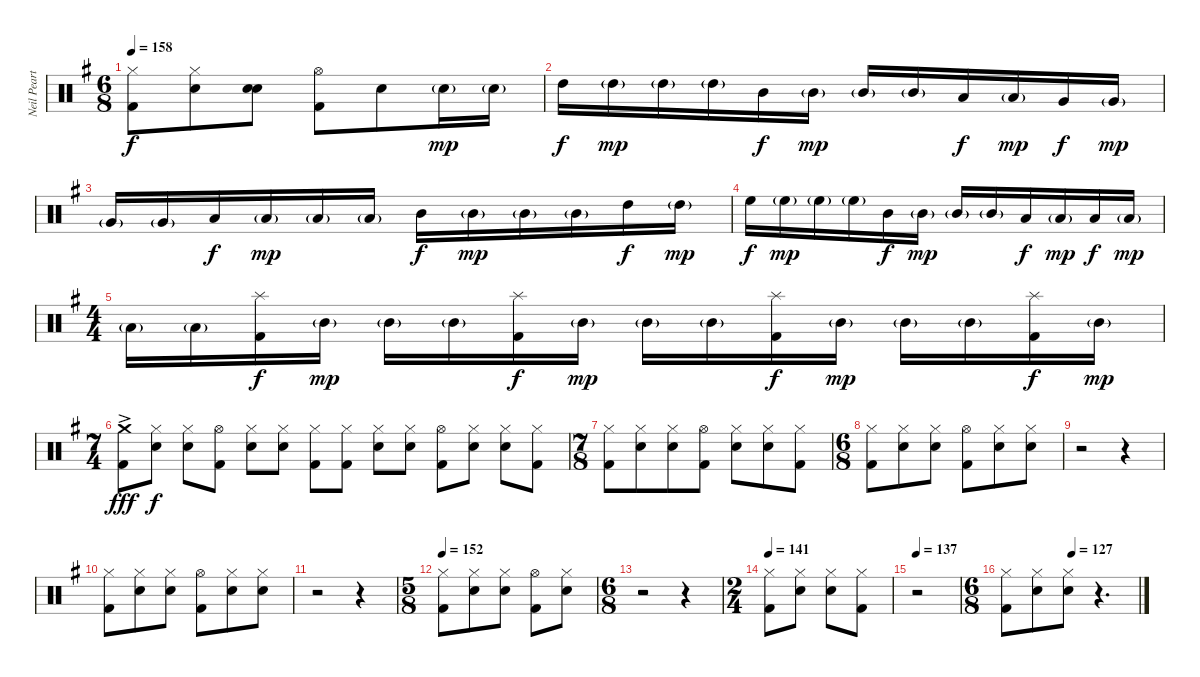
\track ("Neil Peart (drums)" "Neil Peart") {instrument percussion}
\staff {score}
\articulation defaults
\ts (6 8)
\tempo 158
\clef neutral
\ks eminor
("Hi-Hat (closed)" "Kick (hit) 2").8{dy f} ("Hi-Hat (closed)" "Electric Snare (hit)").8 ("Snare (hit)" "Electric Snare (hit)").8 ("Hi-Hat (open)" "Kick (hit) 2").8 "Electric Snare (hit)".8 "Electric Snare (hit)"{g}.16{dy mp} "Electric Snare (hit)"{g}.16 |
"High Tom (hit)".16{dy f} "High Tom (hit)"{g}.16{dy mp} "High Tom (hit)"{g}.16 "High Tom (hit)"{g}.16 "Mid Tom (hit)".16{dy f} "Mid Tom (hit)"{g}.16{dy mp} "Mid Tom (hit)"{g}.16 "Mid Tom (hit)"{g}.16 "Low Tom (hit)".16{dy f} "Low Tom (hit)"{g}.16{dy mp} "Very Low Tom (hit)".16{dy f} "Very Low Tom (hit)"{g}.16{dy mp} |
"Very Low Tom (hit)"{g}.16 "Very Low Tom (hit)"{g}.16 "Low Tom (hit)".16{dy f} "Low Tom (hit)"{g}.16{dy mp} "Low Tom (hit)"{g}.16 "Low Tom (hit)"{g}.16 "Mid Tom (hit)".16{dy f} "Mid Tom (hit)"{g}.16{dy mp} "Mid Tom (hit)"{g}.16 "Mid Tom (hit)"{g}.16 "High Tom (hit)".16{dy f} "High Tom (hit)"{g}.16{dy mp} |
"High Floor Tom (hit)".16{dy f} "High Floor Tom (hit)"{g}.16{dy mp} "High Floor Tom (hit)"{g}.16 "High Floor Tom (hit)"{g}.16 "Mid Tom (hit)".16{dy f} "Mid Tom (hit)"{g}.16{dy mp} "Mid Tom (hit)"{g}.16 "Mid Tom (hit)"{g}.16 "Low Tom (hit)".16{dy f} "Low Tom (hit)"{g}.16{dy mp} "Low Tom (hit)".16{dy f} "Low Tom (hit)"{g}.16{dy mp} |
\ts (4 4)
"Low Tom (hit)"{g}.16 "Low Tom (hit)"{g}.16 ("Splash (hit)" "Kick (hit) 2").16{dy f} "Mid Tom (hit)"{g}.16{dy mp} "Mid Tom (hit)"{g}.16 "Mid Tom (hit)"{g}.16 ("Splash (hit)" "Kick (hit) 2").16{dy f} "Mid Tom (hit)"{g}.16{dy mp} "Mid Tom (hit)"{g}.16 "Mid Tom (hit)"{g}.16 ("Splash (hit)" "Kick (hit) 2").16{dy f} "Mid Tom (hit)"{g}.16{dy mp} "Mid Tom (hit)"{g}.16 "Mid Tom (hit)"{g}.16 ("Splash (hit)" "Kick (hit) 2").16{dy f} "Mid Tom (hit)"{g}.16{dy mp} |
\ts (7 4)
("Crash medium (hit)"{ac} "Kick (hit) 2").8{dy fff} ("Hi-Hat (closed)" "Electric Snare (hit)").8{dy f} ("Hi-Hat (closed)" "Electric Snare (hit)").8 ("Hi-Hat (open)" "Kick (hit) 2").8 ("Hi-Hat (closed)" "Electric Snare (hit)").8 ("Hi-Hat (closed)" "Electric Snare (hit)").8 ("Hi-Hat (closed)" "Kick (hit) 2").8 ("Hi-Hat (closed)" "Kick (hit) 2").8 ("Hi-Hat (closed)" "Electric Snare (hit)").8 ("Hi-Hat (closed)" "Electric Snare (hit)").8 ("Hi-Hat (open)" "Kick (hit) 2").8 ("Hi-Hat (closed)" "Electric Snare (hit)").8 ("Hi-Hat (closed)" "Electric Snare (hit)").8 ("Hi-Hat (closed)" "Kick (hit) 2").8 |
\ts (7 8)
("Hi-Hat (closed)" "Kick (hit) 2").8 ("Hi-Hat (closed)" "Electric Snare (hit)").8 ("Hi-Hat (closed)" "Electric Snare (hit)").8 ("Hi-Hat (open)" "Kick (hit) 2").8 ("Hi-Hat (closed)" "Electric Snare (hit)").8 ("Hi-Hat (closed)" "Electric Snare (hit)").8 ("Hi-Hat (closed)" "Kick (hit) 2").8 |
\ts (6 8)
("Hi-Hat (closed)" "Kick (hit) 2").8 ("Hi-Hat (closed)" "Electric Snare (hit)").8 ("Hi-Hat (closed)" "Electric Snare (hit)").8 ("Hi-Hat (open)" "Kick (hit) 2").8 ("Hi-Hat (closed)" "Electric Snare (hit)").8 ("Hi-Hat (closed)" "Electric Snare (hit)").8 |
r.2 r.4 |
("Hi-Hat (closed)" "Kick (hit) 2").8 ("Hi-Hat (closed)" "Electric Snare (hit)").8 ("Hi-Hat (closed)" "Electric Snare (hit)").8 ("Hi-Hat (open)" "Kick (hit) 2").8 ("Hi-Hat (closed)" "Electric Snare (hit)").8 ("Hi-Hat (closed)" "Electric Snare (hit)").8 |
r.2 r.4 |
\ts (5 8)
\tempo 152
("Hi-Hat (closed)" "Kick (hit) 2").8 ("Hi-Hat (closed)" "Electric Snare (hit)").8 ("Hi-Hat (closed)" "Electric Snare (hit)").8 ("Hi-Hat (open)" "Kick (hit) 2").8 ("Hi-Hat (closed)" "Electric Snare (hit)").8 |
\ts (6 8)
r.2 r.4 |
\ts (2 4)
\tempo 141
("Hi-Hat (closed)" "Kick (hit) 2").8 ("Hi-Hat (closed)" "Electric Snare (hit)").8 ("Hi-Hat (closed)" "Electric Snare (hit)").8 ("Hi-Hat (closed)" "Kick (hit) 2").8 |
\tempo 137
r.2 |
\ts (6 8)
\tempo (127 0.5)
("Hi-Hat (closed)" "Kick (hit) 2").8 ("Hi-Hat (closed)" "Electric Snare (hit)").8 ("Hi-Hat (closed)" "Electric Snare (hit)").8 r.4{d}
